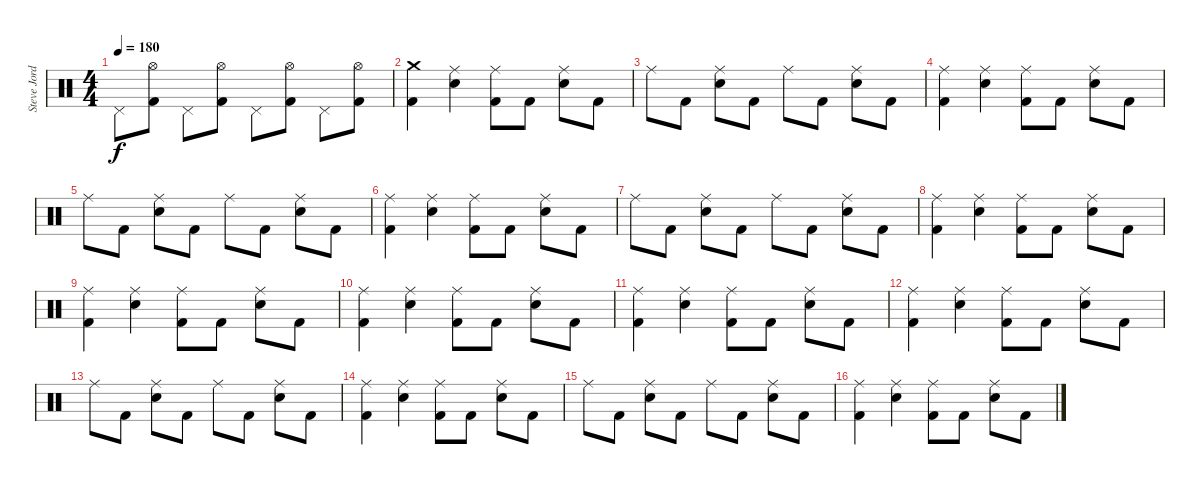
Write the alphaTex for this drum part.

\track ("Steve Jordan - Drums" "Steve Jord") {instrument percussion}
\staff {score}
\articulation defaults
\ts (4 4)
\tempo 180
\clef neutral
\ks c "Pedal Hi-Hat (hit)".8{dy f}
("Hi-Hat (open)" "Kick (hit) 2").8 "Pedal Hi-Hat (hit)".8 ("Hi-Hat (open)" "Kick (hit) 2").8 "Pedal Hi-Hat (hit)".8 ("Hi-Hat (open)" "Kick (hit) 2").8 "Pedal Hi-Hat (hit)".8 ("Hi-Hat (open)" "Kick (hit) 2").8 |
("Crash medium (hit)" "Kick (hit) 2").4 ("Ride (middle)" "Snare (hit) 2").4 ("Ride (middle)" "Kick (hit) 2").8 "Kick (hit) 2".8 ("Ride (middle)" "Snare (hit) 2").8 "Kick (hit) 2".8 |
"Ride (middle)".8 "Kick (hit) 2".8 ("Ride (middle)" "Snare (hit) 2").8 "Kick (hit) 2".8 "Ride (middle)".8 "Kick (hit) 2".8 ("Ride (middle)" "Snare (hit) 2").8 "Kick (hit) 2".8 |
("Ride (middle)" "Kick (hit) 2").4 ("Ride (middle)" "Snare (hit) 2").4 ("Ride (middle)" "Kick (hit) 2").8 "Kick (hit) 2".8 ("Ride (middle)" "Snare (hit) 2").8 "Kick (hit) 2".8 |
"Ride (middle)".8 "Kick (hit) 2".8 ("Ride (middle)" "Snare (hit) 2").8 "Kick (hit) 2".8 "Ride (middle)".8 "Kick (hit) 2".8 ("Ride (middle)" "Snare (hit) 2").8 "Kick (hit) 2".8 |
("Ride (middle)" "Kick (hit) 2").4 ("Ride (middle)" "Snare (hit) 2").4 ("Ride (middle)" "Kick (hit) 2").8 "Kick (hit) 2".8 ("Ride (middle)" "Snare (hit) 2").8 "Kick (hit) 2".8 |
"Ride (middle)".8 "Kick (hit) 2".8 ("Ride (middle)" "Snare (hit) 2").8 "Kick (hit) 2".8 "Ride (middle)".8 "Kick (hit) 2".8 ("Ride (middle)" "Snare (hit) 2").8 "Kick (hit) 2".8 |
("Ride (middle)" "Kick (hit) 2").4 ("Ride (middle)" "Snare (hit) 2").4 ("Ride (middle)" "Kick (hit) 2").8 "Kick (hit) 2".8 ("Ride (middle)" "Snare (hit) 2").8 "Kick (hit) 2".8 |
("Ride (middle)" "Kick (hit) 2").4 ("Ride (middle)" "Snare (hit) 2").4 ("Ride (middle)" "Kick (hit) 2").8 "Kick (hit) 2".8 ("Ride (middle)" "Snare (hit) 2").8 "Kick (hit) 2".8 |
("Ride (middle)" "Kick (hit) 2").4 ("Ride (middle)" "Snare (hit) 2").4 ("Ride (middle)" "Kick (hit) 2").8 "Kick (hit) 2".8 ("Ride (middle)" "Snare (hit) 2").8 "Kick (hit) 2".8 |
("Ride (middle)" "Kick (hit) 2").4 ("Ride (middle)" "Snare (hit) 2").4 ("Ride (middle)" "Kick (hit) 2").8 "Kick (hit) 2".8 ("Ride (middle)" "Snare (hit) 2").8 "Kick (hit) 2".8 |
("Ride (middle)" "Kick (hit) 2").4 ("Ride (middle)" "Snare (hit) 2").4 ("Ride (middle)" "Kick (hit) 2").8 "Kick (hit) 2".8 ("Ride (middle)" "Snare (hit) 2").8 "Kick (hit) 2".8 |
"Ride (middle)".8 "Kick (hit) 2".8 ("Ride (middle)" "Snare (hit) 2").8 "Kick (hit) 2".8 "Ride (middle)".8 "Kick (hit) 2".8 ("Ride (middle)" "Snare (hit) 2").8 "Kick (hit) 2".8 |
("Ride (middle)" "Kick (hit) 2").4 ("Ride (middle)" "Snare (hit) 2").4 ("Ride (middle)" "Kick (hit) 2").8 "Kick (hit) 2".8 ("Ride (middle)" "Snare (hit) 2").8 "Kick (hit) 2".8 |
"Ride (middle)".8 "Kick (hit) 2".8 ("Ride (middle)" "Snare (hit) 2").8 "Kick (hit) 2".8 "Ride (middle)".8 "Kick (hit) 2".8 ("Ride (middle)" "Snare (hit) 2").8 "Kick (hit) 2".8 |
("Ride (middle)" "Kick (hit) 2").4 ("Ride (middle)" "Snare (hit) 2").4 ("Ride (middle)" "Kick (hit) 2").8 "Kick (hit) 2".8 ("Ride (middle)" "Snare (hit) 2").8 "Kick (hit) 2".8
